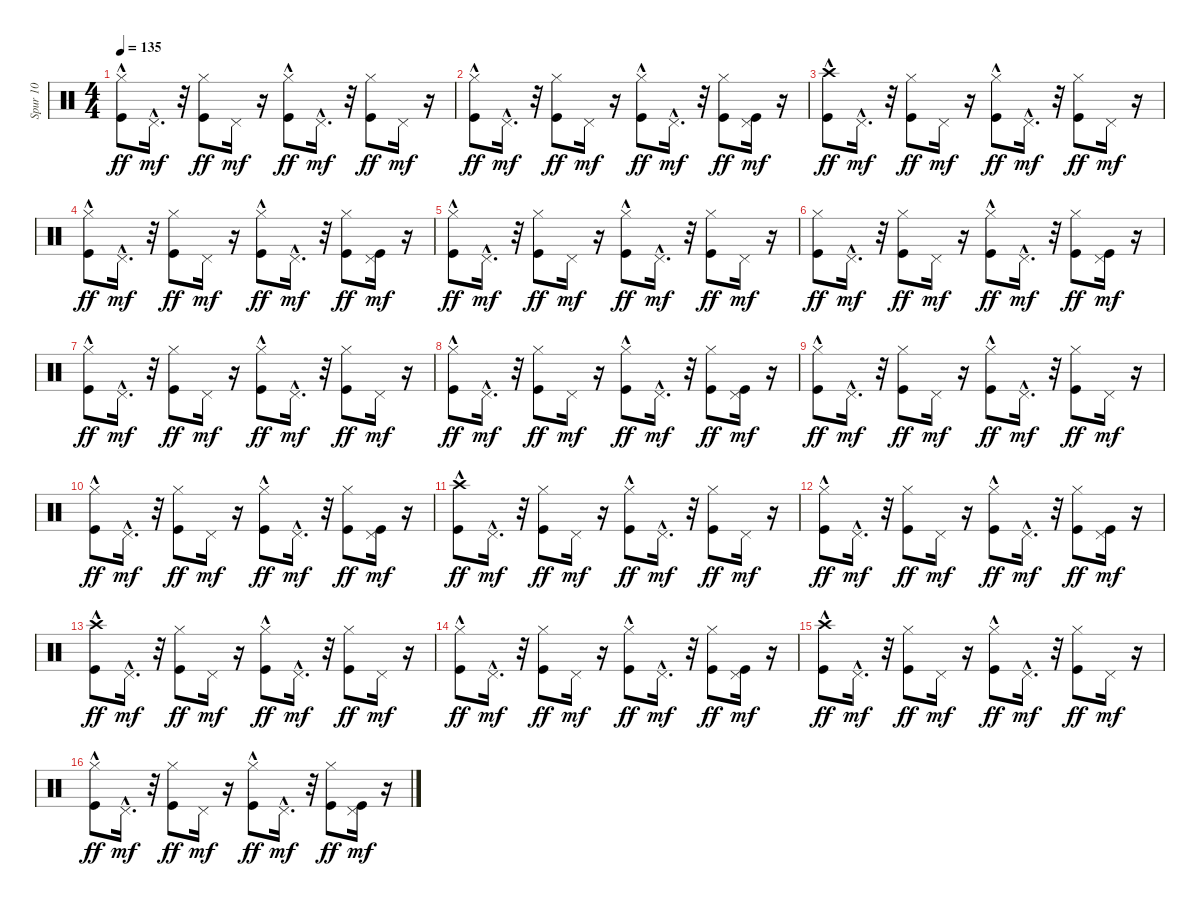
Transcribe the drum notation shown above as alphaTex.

\track ("Spur 10" "Spur 10") {instrument percussion}
\staff {score}
\articulation defaults
\ts (4 4)
\tempo 135
\clef neutral
\ks c
("Hi-Hat (closed)"{hac} "Kick (hit)").8{dy ff} "Pedal Hi-Hat (hit)"{hac}.16{d dy mf} r.32 ("Hi-Hat (closed)" "Kick (hit)").8{dy ff} "Pedal Hi-Hat (hit)".16{dy mf} r.16 ("Hi-Hat (closed)"{hac} "Kick (hit)").8{dy ff} "Pedal Hi-Hat (hit)"{hac}.16{d dy mf} r.32 ("Hi-Hat (closed)" "Kick (hit)").8{dy ff} "Pedal Hi-Hat (hit)".16{dy mf} r.16 |
("Hi-Hat (closed)"{hac} "Kick (hit)").8{dy ff} "Pedal Hi-Hat (hit)"{hac}.16{d dy mf} r.32 ("Hi-Hat (closed)" "Kick (hit)").8{dy ff} "Pedal Hi-Hat (hit)".16{dy mf} r.16 ("Hi-Hat (closed)"{hac} "Kick (hit)").8{dy ff} "Pedal Hi-Hat (hit)"{hac}.16{d dy mf} r.32 ("Hi-Hat (closed)" "Kick (hit)").8{dy ff} ("Kick (hit)" "Pedal Hi-Hat (hit)").16{dy mf} r.16 |
("Crash high (hit)"{hac} "Kick (hit)").8{dy ff} "Pedal Hi-Hat (hit)"{hac}.16{d dy mf} r.32 ("Hi-Hat (closed)" "Kick (hit)").8{dy ff} "Pedal Hi-Hat (hit)".16{dy mf} r.16 ("Hi-Hat (closed)"{hac} "Kick (hit)").8{dy ff} "Pedal Hi-Hat (hit)"{hac}.16{d dy mf} r.32 ("Hi-Hat (closed)" "Kick (hit)").8{dy ff} "Pedal Hi-Hat (hit)".16{dy mf} r.16 |
("Hi-Hat (closed)"{hac} "Kick (hit)").8{dy ff} "Pedal Hi-Hat (hit)"{hac}.16{d dy mf} r.32 ("Hi-Hat (closed)" "Kick (hit)").8{dy ff} "Pedal Hi-Hat (hit)".16{dy mf} r.16 ("Hi-Hat (closed)"{hac} "Kick (hit)").8{dy ff} "Pedal Hi-Hat (hit)"{hac}.16{d dy mf} r.32 ("Hi-Hat (closed)" "Kick (hit)").8{dy ff} ("Kick (hit)" "Pedal Hi-Hat (hit)").16{dy mf} r.16 |
("Hi-Hat (closed)"{hac} "Kick (hit)").8{dy ff} "Pedal Hi-Hat (hit)"{hac}.16{d dy mf} r.32 ("Hi-Hat (closed)" "Kick (hit)").8{dy ff} "Pedal Hi-Hat (hit)".16{dy mf} r.16 ("Hi-Hat (closed)"{hac} "Kick (hit)").8{dy ff} "Pedal Hi-Hat (hit)"{hac}.16{d dy mf} r.32 ("Hi-Hat (closed)" "Kick (hit)").8{dy ff} "Pedal Hi-Hat (hit)".16{dy mf} r.16 |
("Hi-Hat (closed)" "Kick (hit)").8{dy ff} "Pedal Hi-Hat (hit)"{hac}.16{d dy mf} r.32 ("Hi-Hat (closed)" "Kick (hit)").8{dy ff} "Pedal Hi-Hat (hit)".16{dy mf} r.16 ("Hi-Hat (closed)"{hac} "Kick (hit)").8{dy ff} "Pedal Hi-Hat (hit)"{hac}.16{d dy mf} r.32 ("Hi-Hat (closed)" "Kick (hit)").8{dy ff} ("Kick (hit)" "Pedal Hi-Hat (hit)").16{dy mf} r.16 |
("Hi-Hat (closed)"{hac} "Kick (hit)").8{dy ff} "Pedal Hi-Hat (hit)"{hac}.16{d dy mf} r.32 ("Hi-Hat (closed)" "Kick (hit)").8{dy ff} "Pedal Hi-Hat (hit)".16{dy mf} r.16 ("Hi-Hat (closed)"{hac} "Kick (hit)").8{dy ff} "Pedal Hi-Hat (hit)"{hac}.16{d dy mf} r.32 ("Hi-Hat (closed)" "Kick (hit)").8{dy ff} "Pedal Hi-Hat (hit)".16{dy mf} r.16 |
("Hi-Hat (closed)"{hac} "Kick (hit)").8{dy ff} "Pedal Hi-Hat (hit)"{hac}.16{d dy mf} r.32 ("Hi-Hat (closed)" "Kick (hit)").8{dy ff} "Pedal Hi-Hat (hit)".16{dy mf} r.16 ("Hi-Hat (closed)"{hac} "Kick (hit)").8{dy ff} "Pedal Hi-Hat (hit)"{hac}.16{d dy mf} r.32 ("Hi-Hat (closed)" "Kick (hit)").8{dy ff} ("Kick (hit)" "Pedal Hi-Hat (hit)").16{dy mf} r.16 |
("Hi-Hat (closed)"{hac} "Kick (hit)").8{dy ff} "Pedal Hi-Hat (hit)"{hac}.16{d dy mf} r.32 ("Hi-Hat (closed)" "Kick (hit)").8{dy ff} "Pedal Hi-Hat (hit)".16{dy mf} r.16 ("Hi-Hat (closed)"{hac} "Kick (hit)").8{dy ff} "Pedal Hi-Hat (hit)"{hac}.16{d dy mf} r.32 ("Hi-Hat (closed)" "Kick (hit)").8{dy ff} "Pedal Hi-Hat (hit)".16{dy mf} r.16 |
("Hi-Hat (closed)"{hac} "Kick (hit)").8{dy ff} "Pedal Hi-Hat (hit)"{hac}.16{d dy mf} r.32 ("Hi-Hat (closed)" "Kick (hit)").8{dy ff} "Pedal Hi-Hat (hit)".16{dy mf} r.16 ("Hi-Hat (closed)"{hac} "Kick (hit)").8{dy ff} "Pedal Hi-Hat (hit)"{hac}.16{d dy mf} r.32 ("Hi-Hat (closed)" "Kick (hit)").8{dy ff} ("Kick (hit)" "Pedal Hi-Hat (hit)").16{dy mf} r.16 |
("Crash high (hit)"{hac} "Kick (hit)").8{dy ff} "Pedal Hi-Hat (hit)"{hac}.16{d dy mf} r.32 ("Hi-Hat (closed)" "Kick (hit)").8{dy ff} "Pedal Hi-Hat (hit)".16{dy mf} r.16 ("Hi-Hat (closed)"{hac} "Kick (hit)").8{dy ff} "Pedal Hi-Hat (hit)"{hac}.16{d dy mf} r.32 ("Hi-Hat (closed)" "Kick (hit)").8{dy ff} "Pedal Hi-Hat (hit)".16{dy mf} r.16 |
("Hi-Hat (closed)"{hac} "Kick (hit)").8{dy ff} "Pedal Hi-Hat (hit)"{hac}.16{d dy mf} r.32 ("Hi-Hat (closed)" "Kick (hit)").8{dy ff} "Pedal Hi-Hat (hit)".16{dy mf} r.16 ("Hi-Hat (closed)"{hac} "Kick (hit)").8{dy ff} "Pedal Hi-Hat (hit)"{hac}.16{d dy mf} r.32 ("Hi-Hat (closed)" "Kick (hit)").8{dy ff} ("Kick (hit)" "Pedal Hi-Hat (hit)").16{dy mf} r.16 |
("Crash high (hit)"{hac} "Kick (hit)").8{dy ff} "Pedal Hi-Hat (hit)"{hac}.16{d dy mf} r.32 ("Hi-Hat (closed)" "Kick (hit)").8{dy ff} "Pedal Hi-Hat (hit)".16{dy mf} r.16 ("Hi-Hat (closed)"{hac} "Kick (hit)").8{dy ff} "Pedal Hi-Hat (hit)"{hac}.16{d dy mf} r.32 ("Hi-Hat (closed)" "Kick (hit)").8{dy ff} "Pedal Hi-Hat (hit)".16{dy mf} r.16 |
("Hi-Hat (closed)"{hac} "Kick (hit)").8{dy ff} "Pedal Hi-Hat (hit)"{hac}.16{d dy mf} r.32 ("Hi-Hat (closed)" "Kick (hit)").8{dy ff} "Pedal Hi-Hat (hit)".16{dy mf} r.16 ("Hi-Hat (closed)"{hac} "Kick (hit)").8{dy ff} "Pedal Hi-Hat (hit)"{hac}.16{d dy mf} r.32 ("Hi-Hat (closed)" "Kick (hit)").8{dy ff} ("Kick (hit)" "Pedal Hi-Hat (hit)").16{dy mf} r.16 |
("Crash high (hit)"{hac} "Kick (hit)").8{dy ff} "Pedal Hi-Hat (hit)"{hac}.16{d dy mf} r.32 ("Hi-Hat (closed)" "Kick (hit)").8{dy ff} "Pedal Hi-Hat (hit)".16{dy mf} r.16 ("Hi-Hat (closed)"{hac} "Kick (hit)").8{dy ff} "Pedal Hi-Hat (hit)"{hac}.16{d dy mf} r.32 ("Hi-Hat (closed)" "Kick (hit)").8{dy ff} "Pedal Hi-Hat (hit)".16{dy mf} r.16 |
("Hi-Hat (closed)"{hac} "Kick (hit)").8{dy ff} "Pedal Hi-Hat (hit)"{hac}.16{d dy mf} r.32 ("Hi-Hat (closed)" "Kick (hit)").8{dy ff} "Pedal Hi-Hat (hit)".16{dy mf} r.16 ("Hi-Hat (closed)"{hac} "Kick (hit)").8{dy ff} "Pedal Hi-Hat (hit)"{hac}.16{d dy mf} r.32 ("Hi-Hat (closed)" "Kick (hit)").8{dy ff} ("Kick (hit)" "Pedal Hi-Hat (hit)").16{dy mf} r.16
